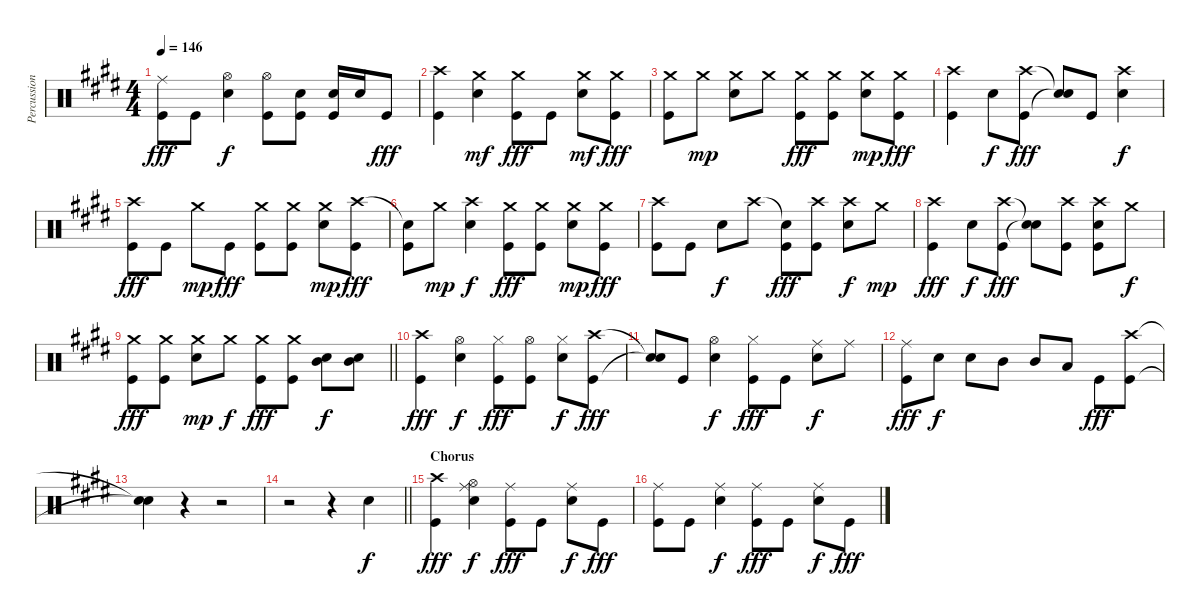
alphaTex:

\track ("Percussion" "Percussion") {instrument percussion}
\staff {score}
\articulation defaults
\ts (4 4)
\tempo 146
\clef neutral
\ks e
("Ride (middle)" "Kick (hit)").8{dy fff} "Kick (hit)".8 ("Hi-Hat (open)" "Snare (hit) 2").4{dy f} ("Hi-Hat (open)" "Kick (hit)").8 ("Snare (hit) 2" "Kick (hit)").8 ("Snare (hit) 2" "Kick (hit)").16 "Snare (hit) 2".16 "Kick (hit)".8{dy fff} |
("Crash high (hit)" "Kick (hit)").4 ("Crash medium (hit)" "Snare (hit) 2").4{dy mf} ("Crash medium (hit)" "Kick (hit)").8{dy fff} "Kick (hit)".8 ("Crash medium (hit)" "Snare (hit) 2").8{dy mf} ("Crash medium (hit)" "Kick (hit)").8{dy fff} |
("Crash medium (hit)" "Kick (hit)").8 "Crash medium (hit)".8{dy mp} ("Crash medium (hit)" "Snare (hit) 2").8 "Crash medium (hit)".8 ("Crash medium (hit)" "Kick (hit)").8{dy fff} ("Crash medium (hit)" "Kick (hit)").8 ("Crash medium (hit)" "Snare (hit) 2").8{dy mp} ("Crash medium (hit)" "Kick (hit)").8{dy fff} |
("Crash high (hit)" "Kick (hit)").4 "Snare (hit) 2".8{dy f} ("Crash high (hit)" "Kick (hit)").8{dy fff} ("Snare (hit)"{t} "Snare (hit)"{t}).8 "Kick (hit)".8 ("Crash high (hit)" "Snare (hit) 2").4{dy f} |
("Crash high (hit)" "Kick (hit)").8{dy fff} "Kick (hit)".8 "Crash medium (hit)".8{dy mp} "Kick (hit)".8{dy fff} ("Crash medium (hit)" "Kick (hit)").8 ("Crash medium (hit)" "Kick (hit)").8 ("Crash medium (hit)" "Snare (hit) 2").8{dy mp} ("Crash high (hit)" "Kick (hit)").8{dy fff} |
("Snare (hit)"{t} "Kick (hit)").8 "Crash medium (hit)".8{dy mp} ("Crash high (hit)" "Snare (hit) 2").4{dy f} ("Crash medium (hit)" "Kick (hit)").8{dy fff} ("Crash medium (hit)" "Kick (hit)").8 ("Crash medium (hit)" "Snare (hit) 2").8{dy mp} ("Crash medium (hit)" "Kick (hit)").8{dy fff} |
("Crash high (hit)" "Kick (hit)").8 "Kick (hit)".8 "Snare (hit) 2".8{dy f} "Crash high (hit)".8 ("Snare (hit)"{t} "Kick (hit)").8{dy fff} ("Crash high (hit)" "Kick (hit)").8 ("Crash high (hit)" "Snare (hit) 2").8{dy f} "Crash medium (hit)".8{dy mp} |
("Crash high (hit)" "Kick (hit)").4{dy fff} "Snare (hit) 2".8{dy f} ("Crash high (hit)" "Kick (hit)").8{dy fff} ("Snare (hit)"{t} "Snare (hit)"{t}).8 ("Crash high (hit)" "Kick (hit)").8 ("Crash high (hit)" "Snare (hit) 2" "Kick (hit)").8 "Crash medium (hit)".8{dy f} |
\barLineRight lightlight
("Crash medium (hit)" "Kick (hit)").8{dy fff} ("Crash medium (hit)" "Kick (hit)").8 ("Crash medium (hit)" "Snare (hit) 2").8{dy mp} "Crash medium (hit)".8{dy f} ("Crash medium (hit)" "Kick (hit)").8{dy fff} ("Crash medium (hit)" "Kick (hit)").8 ("Mid Tom (hit)" "Snare (hit) 2").8{dy f} ("Mid Tom (hit)" "Snare (hit) 2").8 |
("Crash high (hit)" "Kick (hit)").4{dy fff} ("Hi-Hat (open)" "Snare (hit) 2").4{dy f} ("Hi-Hat (closed)" "Kick (hit)").8{dy fff} ("Hi-Hat (open)" "Kick (hit)").8 ("Hi-Hat (closed)" "Snare (hit) 2").8{dy f} ("Crash high (hit)" "Kick (hit)").8{dy fff} |
("Snare (hit)"{t} "Snare (hit)"{t}).8 "Kick (hit)".8 ("Hi-Hat (open)" "Snare (hit) 2").4{dy f} ("Hi-Hat (closed)" "Kick (hit)").8{dy fff} "Kick (hit)".8 ("Ride (middle)" "Snare (hit) 2").8{dy f} "Ride (middle)".8 |
("Ride (middle)" "Kick (hit)").8{dy fff} "Snare (hit) 2".8{dy f} "Snare (hit) 2".8 "Mid Tom (hit)".8 "Mid Tom (hit)".8 "Low Tom (hit)".8 "Kick (hit)".8{dy fff} ("Crash high (hit)" "Kick (hit)").8 |
("Snare (hit)"{t} "Snare (hit)"{t}).4 r.4 r.2 |
\barLineRight lightlight
r.2 r.4 "Snare (hit) 2".4{dy f} |
\section ("" "Chorus")
("Crash high (hit)" "Kick (hit)").4{dy fff} ("Hi-Hat (open)" "Ride (middle)" "Snare (hit) 2").4{dy f} ("Ride (middle)" "Kick (hit)").8{dy fff} "Kick (hit)".8 ("Ride (middle)" "Snare (hit) 2").8{dy f} "Kick (hit)".8{dy fff} |
("Ride (middle)" "Kick (hit)").8 "Kick (hit)".8 ("Ride (middle)" "Snare (hit) 2").4{dy f} ("Ride (middle)" "Kick (hit)").8{dy fff} "Kick (hit)".8 ("Ride (middle)" "Snare (hit) 2").8{dy f} "Kick (hit)".8{dy fff}
